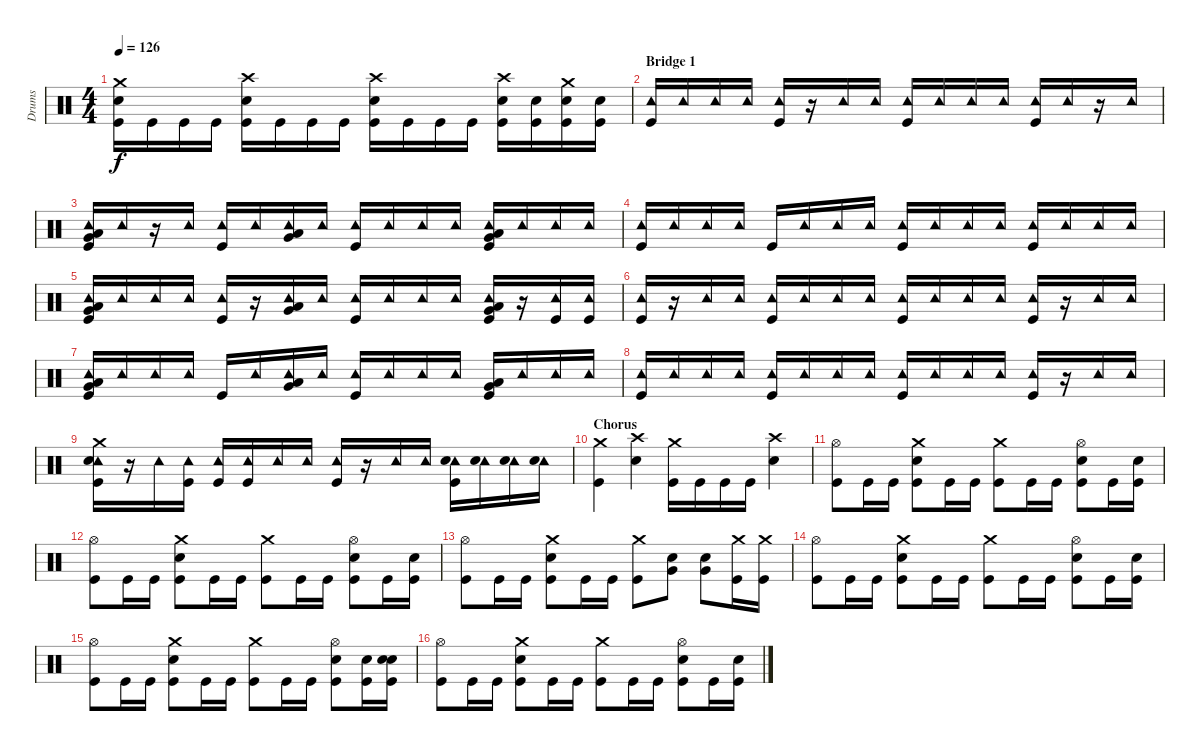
\track ("Drums" "Drums") {instrument percussion}
\staff {score}
\articulation defaults
\ts (4 4)
\tempo 126
\clef neutral
\ks c
("Crash medium (hit)" "Electric Snare (hit)" "Kick (hit)").16{dy f} "Kick (hit)".16 "Kick (hit)".16 "Kick (hit)".16 ("Crash high (hit)" "Electric Snare (hit)" "Kick (hit)").16 "Kick (hit)".16 "Kick (hit)".16 "Kick (hit)".16 ("Crash high (hit)" "Electric Snare (hit)" "Kick (hit)").16 "Kick (hit)".16 "Kick (hit)".16 "Kick (hit)".16 ("Crash high (hit)" "Electric Snare (hit)" "Kick (hit)").16 ("Electric Snare (hit)" "Kick (hit)").16 ("Crash medium (hit)" "Electric Snare (hit)" "Kick (hit)").16 ("Electric Snare (hit)" "Kick (hit)").16 |
\section ("" "Bridge 1")
("Tambourine (hit)" "Kick (hit)").16 "Tambourine (hit)".16 "Tambourine (hit)".16 "Tambourine (hit)".16 ("Tambourine (hit)" "Kick (hit)").16 r.16 "Tambourine (hit)".16 "Tambourine (hit)".16 ("Tambourine (hit)" "Kick (hit)").16 "Tambourine (hit)".16 "Tambourine (hit)".16 "Tambourine (hit)".16 ("Tambourine (hit)" "Kick (hit)").16 "Tambourine (hit)".16 r.16 "Tambourine (hit)".16 |
("Tambourine (hit)" "Very Low Tom (hit)" "Low Tom (hit)" "Kick (hit)").16 "Tambourine (hit)".16 r.16 "Tambourine (hit)".16 ("Tambourine (hit)" "Kick (hit)").16 "Tambourine (hit)".16 ("Tambourine (hit)" "Very Low Tom (hit)" "Low Tom (hit)").16 "Tambourine (hit)".16 ("Tambourine (hit)" "Kick (hit)").16 "Tambourine (hit)".16 "Tambourine (hit)".16 "Tambourine (hit)".16 ("Tambourine (hit)" "Very Low Tom (hit)" "Low Tom (hit)" "Kick (hit)").16 "Tambourine (hit)".16 "Tambourine (hit)".16 "Tambourine (hit)".16 |
("Tambourine (hit)" "Kick (hit)").16 "Tambourine (hit)".16 "Tambourine (hit)".16 "Tambourine (hit)".16 "Kick (hit)".16 "Tambourine (hit)".16 "Tambourine (hit)".16 "Tambourine (hit)".16 ("Tambourine (hit)" "Kick (hit)").16 "Tambourine (hit)".16 "Tambourine (hit)".16 "Tambourine (hit)".16 ("Tambourine (hit)" "Kick (hit)").16 "Tambourine (hit)".16 "Tambourine (hit)".16 "Tambourine (hit)".16 |
("Tambourine (hit)" "Very Low Tom (hit)" "Low Tom (hit)" "Kick (hit)").16 "Tambourine (hit)".16 "Tambourine (hit)".16 "Tambourine (hit)".16 ("Tambourine (hit)" "Kick (hit)").16 r.16 ("Tambourine (hit)" "Low Tom (hit)" "Very Low Tom (hit)").16 "Tambourine (hit)".16 ("Tambourine (hit)" "Kick (hit)").16 "Tambourine (hit)".16 "Tambourine (hit)".16 "Tambourine (hit)".16 ("Tambourine (hit)" "Low Tom (hit)" "Very Low Tom (hit)" "Kick (hit)").16 r.16 ("Tambourine (hit)" "Kick (hit)").16 ("Tambourine (hit)" "Kick (hit)").16 |
("Tambourine (hit)" "Kick (hit)").16 r.16 "Tambourine (hit)".16 "Tambourine (hit)".16 ("Tambourine (hit)" "Kick (hit)").16 "Tambourine (hit)".16 "Tambourine (hit)".16 "Tambourine (hit)".16 ("Tambourine (hit)" "Kick (hit)").16 "Tambourine (hit)".16 "Tambourine (hit)".16 "Tambourine (hit)".16 ("Tambourine (hit)" "Kick (hit)").16 r.16 "Tambourine (hit)".16 "Tambourine (hit)".16 |
("Tambourine (hit)" "Very Low Tom (hit)" "Low Tom (hit)" "Kick (hit)").16 "Tambourine (hit)".16 "Tambourine (hit)".16 "Tambourine (hit)".16 "Kick (hit)".16 "Tambourine (hit)".16 ("Tambourine (hit)" "Low Tom (hit)" "Very Low Tom (hit)").16 "Tambourine (hit)".16 ("Tambourine (hit)" "Kick (hit)").16 "Tambourine (hit)".16 "Tambourine (hit)".16 "Tambourine (hit)".16 ("Low Tom (hit)" "Very Low Tom (hit)" "Kick (hit)").16 "Tambourine (hit)".16 "Tambourine (hit)".16 "Tambourine (hit)".16 |
("Tambourine (hit)" "Kick (hit)").16 "Tambourine (hit)".16 "Tambourine (hit)".16 "Tambourine (hit)".16 ("Tambourine (hit)" "Kick (hit)").16 "Tambourine (hit)".16 "Tambourine (hit)".16 "Tambourine (hit)".16 ("Tambourine (hit)" "Kick (hit)").16 "Tambourine (hit)".16 "Tambourine (hit)".16 "Tambourine (hit)".16 ("Tambourine (hit)" "Kick (hit)").16 r.16 "Tambourine (hit)".16 "Tambourine (hit)".16 |
("Tambourine (hit)" "Crash medium (hit)" "Electric Snare (hit)" "Kick (hit)").16 r.16 "Tambourine (hit)".16 ("Tambourine (hit)" "Kick (hit)").16 ("Tambourine (hit)" "Kick (hit)").16 ("Tambourine (hit)" "Kick (hit)").16 "Tambourine (hit)".16 "Tambourine (hit)".16 ("Tambourine (hit)" "Kick (hit)").16 r.16 "Tambourine (hit)".16 "Tambourine (hit)".16 ("Tambourine (hit)" "Electric Snare (hit)" "Kick (hit)").16 ("Tambourine (hit)" "Electric Snare (hit)").16 ("Tambourine (hit)" "Electric Snare (hit)").16 ("Tambourine (hit)" "Electric Snare (hit)").16 |
\section ("" "Chorus")
("Crash medium (hit)" "Kick (hit)").4 ("Crash high (hit)" "Electric Snare (hit)").4 ("Crash medium (hit)" "Kick (hit)").16 "Kick (hit)".16 "Kick (hit)".16 "Kick (hit)".16 ("Crash high (hit)" "Electric Snare (hit)").4 |
("Hi-Hat (open)" "Kick (hit)").8 "Kick (hit)".16 "Kick (hit)".16 ("Crash medium (hit)" "Electric Snare (hit)" "Kick (hit)").8 "Kick (hit)".16 "Kick (hit)".16 ("Crash medium (hit)" "Kick (hit)").8 "Kick (hit)".16 "Kick (hit)".16 ("Electric Snare (hit)" "Hi-Hat (open)" "Kick (hit)").8 "Kick (hit)".16 ("Electric Snare (hit)" "Kick (hit)").16 |
("Hi-Hat (open)" "Kick (hit)").8 "Kick (hit)".16 "Kick (hit)".16 ("Crash medium (hit)" "Electric Snare (hit)" "Kick (hit)").8 "Kick (hit)".16 "Kick (hit)".16 ("Crash medium (hit)" "Kick (hit)").8 "Kick (hit)".16 "Kick (hit)".16 ("Electric Snare (hit)" "Hi-Hat (open)" "Kick (hit)").8 "Kick (hit)".16 ("Electric Snare (hit)" "Kick (hit)").16 |
("Hi-Hat (open)" "Kick (hit)").8 "Kick (hit)".16 "Kick (hit)".16 ("Crash medium (hit)" "Electric Snare (hit)" "Kick (hit)").8 "Kick (hit)".16 "Kick (hit)".16 ("Crash medium (hit)" "Kick (hit)").8 ("Very Low Tom (hit)" "Electric Snare (hit)").8 ("Very Low Tom (hit)" "Electric Snare (hit)").8 ("Crash medium (hit)" "Kick (hit)").16 ("Crash medium (hit)" "Kick (hit)").16 |
("Hi-Hat (open)" "Kick (hit)").8 "Kick (hit)".16 "Kick (hit)".16 ("Crash medium (hit)" "Electric Snare (hit)" "Kick (hit)").8 "Kick (hit)".16 "Kick (hit)".16 ("Crash medium (hit)" "Kick (hit)").8 "Kick (hit)".16 "Kick (hit)".16 ("Electric Snare (hit)" "Hi-Hat (open)" "Kick (hit)").8 "Kick (hit)".16 ("Electric Snare (hit)" "Kick (hit)").16 |
("Hi-Hat (open)" "Kick (hit)").8 "Kick (hit)".16 "Kick (hit)".16 ("Crash medium (hit)" "Electric Snare (hit)" "Kick (hit)").8 "Kick (hit)".16 "Kick (hit)".16 ("Crash medium (hit)" "Kick (hit)").8 "Kick (hit)".16 "Kick (hit)".16 ("Electric Snare (hit)" "Hi-Hat (open)" "Kick (hit)").8 ("Electric Snare (hit)" "Kick (hit)").16 ("Electric Snare (hit)" "Electric Snare (hit)" "Kick (hit)").16 |
("Hi-Hat (open)" "Kick (hit)").8 "Kick (hit)".16 "Kick (hit)".16 ("Crash medium (hit)" "Electric Snare (hit)" "Kick (hit)").8 "Kick (hit)".16 "Kick (hit)".16 ("Crash medium (hit)" "Kick (hit)").8 "Kick (hit)".16 "Kick (hit)".16 ("Electric Snare (hit)" "Hi-Hat (open)" "Kick (hit)").8 "Kick (hit)".16 ("Electric Snare (hit)" "Kick (hit)").16
